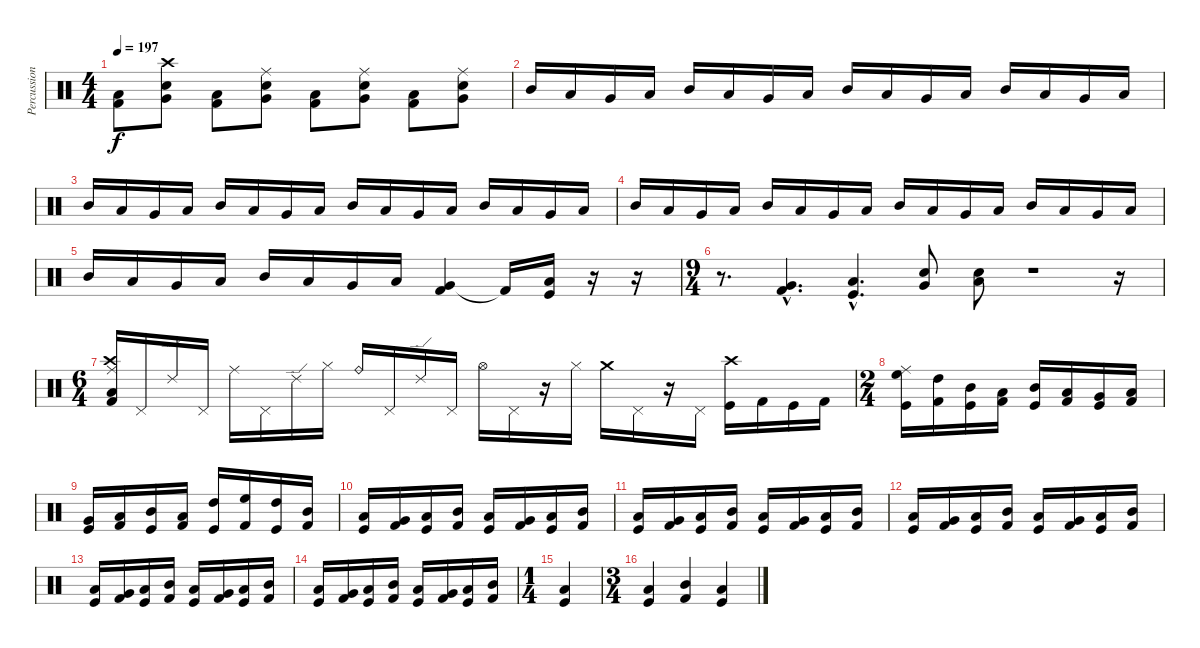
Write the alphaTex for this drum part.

\track ("Percussions" "Percussion") {instrument percussion}
\staff {score}
\articulation defaults
\ts (4 4)
\tempo 197
\clef neutral
\ks c
("Low Tom (hit)" "Kick (hit) 2").8{dy f} ("Crash high (hit)" "Very Low Tom (hit)" "Electric Snare (hit)").8 ("Low Tom (hit)" "Kick (hit) 2").8 ("Ride (middle)" "Very Low Tom (hit)" "Electric Snare (hit)").8 ("Low Tom (hit)" "Kick (hit) 2").8 ("Ride (middle)" "Very Low Tom (hit)" "Electric Snare (hit)").8 ("Low Tom (hit)" "Kick (hit) 2").8 ("Ride (middle)" "Very Low Tom (hit)" "Electric Snare (hit)").8 |
"Mid Tom (hit)".16 "Low Tom (hit)".16 "Very Low Tom (hit)".16 "Low Floor Tom (hit)".16 "Mid Tom (hit)".16 "Low Tom (hit)".16 "Very Low Tom (hit)".16 "Low Floor Tom (hit)".16 "Mid Tom (hit)".16 "Low Tom (hit)".16 "Very Low Tom (hit)".16 "Low Floor Tom (hit)".16 "Mid Tom (hit)".16 "Low Tom (hit)".16 "Very Low Tom (hit)".16 "Low Floor Tom (hit)".16 |
"Mid Tom (hit)".16 "Low Tom (hit)".16 "Very Low Tom (hit)".16 "Low Floor Tom (hit)".16 "Mid Tom (hit)".16 "Low Tom (hit)".16 "Very Low Tom (hit)".16 "Low Floor Tom (hit)".16 "Mid Tom (hit)".16 "Low Tom (hit)".16 "Very Low Tom (hit)".16 "Low Floor Tom (hit)".16 "Mid Tom (hit)".16 "Low Tom (hit)".16 "Very Low Tom (hit)".16 "Low Floor Tom (hit)".16 |
"Mid Tom (hit)".16 "Low Tom (hit)".16 "Very Low Tom (hit)".16 "Low Floor Tom (hit)".16 "Mid Tom (hit)".16 "Low Tom (hit)".16 "Very Low Tom (hit)".16 "Low Floor Tom (hit)".16 "Mid Tom (hit)".16 "Low Tom (hit)".16 "Very Low Tom (hit)".16 "Low Floor Tom (hit)".16 "Mid Tom (hit)".16 "Low Tom (hit)".16 "Very Low Tom (hit)".16 "Low Floor Tom (hit)".16 |
"Mid Tom (hit)".16 "Low Tom (hit)".16 "Very Low Tom (hit)".16 "Low Floor Tom (hit)".16 "Mid Tom (hit)".16 "Low Tom (hit)".16 "Very Low Tom (hit)".16 "Low Floor Tom (hit)".16 ("Very Low Tom (hit)" "Kick (hit) 2").4 "Kick (hit) 2"{t}.16 ("Low Tom (hit)" "Kick (hit)").16 r.16 r.16 |
\ts (9 4)
r.8{d} ("Kick (hit) 2"{hac} "Very Low Tom (hit)"{hac}).4{d} ("Kick (hit)"{hac} "Low Tom (hit)"{hac}).4{d} ("Electric Snare (hit)" "Very Low Tom (hit)").8 ("Electric Snare (hit)" "Low Floor Tom (hit)").8 r.1 r.16 |
\ts (6 4)
("Ride (middle)" "Crash high (hit)" "Low Tom (hit)" "Kick (hit) 2").16 "Pedal Hi-Hat (hit)".16 "Ride (edge) 2".16 "Pedal Hi-Hat (hit)".16 "Ride (middle)".16 "Pedal Hi-Hat (hit)".16 "Ride (edge) 2".16 "Hi-Hat (closed)".16 "Ride (bell)".16 "Pedal Hi-Hat (hit)".16 "Ride (edge) 2".16 "Pedal Hi-Hat (hit)".16 "Hi-Hat (open)".16 "Pedal Hi-Hat (hit)".16 r.16 "Hi-Hat (closed)".16 "Crash medium (hit)".16 "Pedal Hi-Hat (hit)".16 r.16 "Pedal Hi-Hat (hit)".16 ("Crash high (hit)" "Kick (hit)").16 "Kick (hit) 2".16 "Kick (hit)".16 "Kick (hit) 2".16 |
\ts (2 4)
("Ride (middle)" "High Floor Tom (hit)" "Kick (hit)").16 ("High Tom (hit)" "Kick (hit) 2").16 ("Mid Tom (hit)" "Kick (hit)").16 ("Low Tom (hit)" "Kick (hit) 2").16 ("Mid Tom (hit)" "Kick (hit)").16 ("Low Tom (hit)" "Kick (hit) 2").16 ("Very Low Tom (hit)" "Kick (hit)").16 ("Low Floor Tom (hit)" "Kick (hit) 2").16 |
("Very Low Tom (hit)" "Kick (hit)").16 ("Low Tom (hit)" "Kick (hit) 2").16 ("Mid Tom (hit)" "Kick (hit)").16 ("Low Tom (hit)" "Kick (hit) 2").16 ("High Tom (hit)" "Kick (hit)").16 ("High Floor Tom (hit)" "Kick (hit) 2").16 ("High Tom (hit)" "Kick (hit)").16 ("Mid Tom (hit)" "Kick (hit) 2").16 |
("Low Floor Tom (hit)" "Kick (hit)").16 ("Very Low Tom (hit)" "Kick (hit) 2").16 ("Low Tom (hit)" "Kick (hit)").16 ("Mid Tom (hit)" "Kick (hit) 2").16 ("Low Tom (hit)" "Kick (hit)").16 ("Very Low Tom (hit)" "Kick (hit) 2").16 ("Low Tom (hit)" "Kick (hit)").16 ("Mid Tom (hit)" "Kick (hit) 2").16 |
("Low Floor Tom (hit)" "Kick (hit)").16 ("Very Low Tom (hit)" "Kick (hit) 2").16 ("Low Tom (hit)" "Kick (hit)").16 ("Mid Tom (hit)" "Kick (hit) 2").16 ("Low Tom (hit)" "Kick (hit)").16 ("Very Low Tom (hit)" "Kick (hit) 2").16 ("Low Tom (hit)" "Kick (hit)").16 ("Mid Tom (hit)" "Kick (hit) 2").16 |
("Low Floor Tom (hit)" "Kick (hit)").16 ("Very Low Tom (hit)" "Kick (hit) 2").16 ("Low Tom (hit)" "Kick (hit)").16 ("Mid Tom (hit)" "Kick (hit) 2").16 ("Low Tom (hit)" "Kick (hit)").16 ("Very Low Tom (hit)" "Kick (hit) 2").16 ("Low Tom (hit)" "Kick (hit)").16 ("Mid Tom (hit)" "Kick (hit) 2").16 |
("Low Floor Tom (hit)" "Kick (hit)").16 ("Very Low Tom (hit)" "Kick (hit) 2").16 ("Low Tom (hit)" "Kick (hit)").16 ("Mid Tom (hit)" "Kick (hit) 2").16 ("Low Tom (hit)" "Kick (hit)").16 ("Very Low Tom (hit)" "Kick (hit) 2").16 ("Low Tom (hit)" "Kick (hit)").16 ("Mid Tom (hit)" "Kick (hit) 2").16 |
("Low Floor Tom (hit)" "Kick (hit)").16 ("Very Low Tom (hit)" "Kick (hit) 2").16 ("Low Tom (hit)" "Kick (hit)").16 ("Mid Tom (hit)" "Kick (hit) 2").16 ("Low Tom (hit)" "Kick (hit)").16 ("Very Low Tom (hit)" "Kick (hit) 2").16 ("Low Tom (hit)" "Kick (hit)").16 ("Mid Tom (hit)" "Kick (hit) 2").16 |
\ts (1 4)
("Low Tom (hit)" "Kick (hit)").4 |
\ts (3 4)
("Low Tom (hit)" "Kick (hit)").4 ("Mid Tom (hit)" "Kick (hit) 2").4 ("Low Tom (hit)" "Kick (hit)").4
